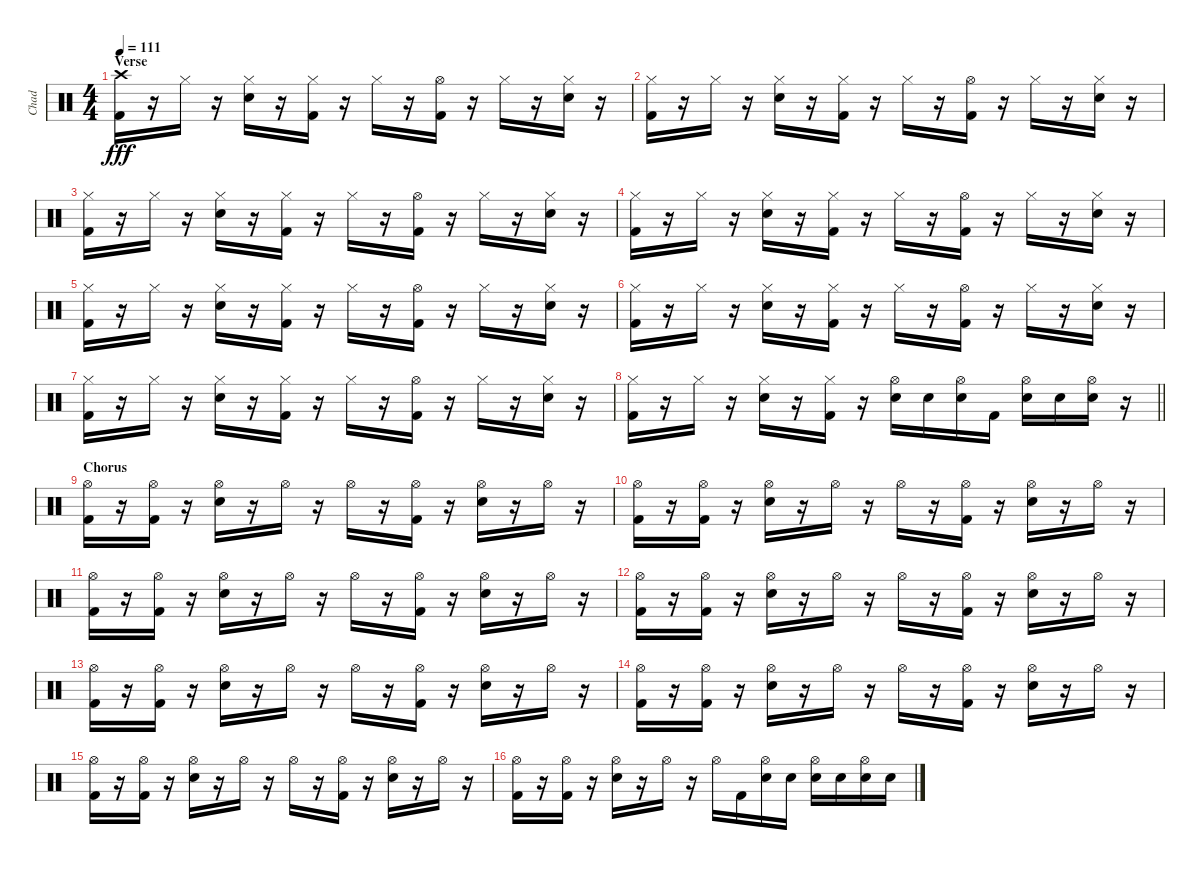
\track ("Chad" "Chad") {instrument percussion}
\staff {score}
\articulation defaults
\ts (4 4)
\section ("" "Verse")
\tempo 111
\clef neutral
\ks c
("Crash high (hit)" "Kick (hit) 2").16{dy fff} r.16 "Hi-Hat (closed)".16 r.16 ("Hi-Hat (closed)" "Electric Snare (hit)").16 r.16 ("Hi-Hat (closed)" "Kick (hit) 2").16 r.16 "Hi-Hat (closed)".16 r.16 ("Hi-Hat (open)" "Kick (hit) 2").16 r.16 "Hi-Hat (closed)".16 r.16 ("Hi-Hat (closed)" "Electric Snare (hit)").16 r.16 |
("Hi-Hat (closed)" "Kick (hit) 2").16 r.16 "Hi-Hat (closed)".16 r.16 ("Hi-Hat (closed)" "Electric Snare (hit)").16 r.16 ("Hi-Hat (closed)" "Kick (hit) 2").16 r.16 "Hi-Hat (closed)".16 r.16 ("Hi-Hat (open)" "Kick (hit) 2").16 r.16 "Hi-Hat (closed)".16 r.16 ("Hi-Hat (closed)" "Electric Snare (hit)").16 r.16 |
("Hi-Hat (closed)" "Kick (hit) 2").16 r.16 "Hi-Hat (closed)".16 r.16 ("Hi-Hat (closed)" "Electric Snare (hit)").16 r.16 ("Hi-Hat (closed)" "Kick (hit) 2").16 r.16 "Hi-Hat (closed)".16 r.16 ("Hi-Hat (open)" "Kick (hit) 2").16 r.16 "Hi-Hat (closed)".16 r.16 ("Hi-Hat (closed)" "Electric Snare (hit)").16 r.16 |
("Hi-Hat (closed)" "Kick (hit) 2").16 r.16 "Hi-Hat (closed)".16 r.16 ("Hi-Hat (closed)" "Electric Snare (hit)").16 r.16 ("Hi-Hat (closed)" "Kick (hit) 2").16 r.16 "Hi-Hat (closed)".16 r.16 ("Hi-Hat (open)" "Kick (hit) 2").16 r.16 "Hi-Hat (closed)".16 r.16 ("Hi-Hat (closed)" "Electric Snare (hit)").16 r.16 |
("Hi-Hat (closed)" "Kick (hit) 2").16 r.16 "Hi-Hat (closed)".16 r.16 ("Hi-Hat (closed)" "Electric Snare (hit)").16 r.16 ("Hi-Hat (closed)" "Kick (hit) 2").16 r.16 "Hi-Hat (closed)".16 r.16 ("Hi-Hat (open)" "Kick (hit) 2").16 r.16 "Hi-Hat (closed)".16 r.16 ("Hi-Hat (closed)" "Electric Snare (hit)").16 r.16 |
("Hi-Hat (closed)" "Kick (hit) 2").16 r.16 "Hi-Hat (closed)".16 r.16 ("Hi-Hat (closed)" "Electric Snare (hit)").16 r.16 ("Hi-Hat (closed)" "Kick (hit) 2").16 r.16 "Hi-Hat (closed)".16 r.16 ("Hi-Hat (open)" "Kick (hit) 2").16 r.16 "Hi-Hat (closed)".16 r.16 ("Hi-Hat (closed)" "Electric Snare (hit)").16 r.16 |
("Hi-Hat (closed)" "Kick (hit) 2").16 r.16 "Hi-Hat (closed)".16 r.16 ("Hi-Hat (closed)" "Electric Snare (hit)").16 r.16 ("Hi-Hat (closed)" "Kick (hit) 2").16 r.16 "Hi-Hat (closed)".16 r.16 ("Hi-Hat (open)" "Kick (hit) 2").16 r.16 "Hi-Hat (closed)".16 r.16 ("Hi-Hat (closed)" "Electric Snare (hit)").16 r.16 |
\barLineRight lightlight
("Hi-Hat (closed)" "Kick (hit) 2").16 r.16 "Hi-Hat (closed)".16 r.16 ("Hi-Hat (closed)" "Electric Snare (hit)").16 r.16 ("Hi-Hat (closed)" "Kick (hit) 2").16 r.16 ("Hi-Hat (open)" "Electric Snare (hit)").16 "Electric Snare (hit)".16 ("Hi-Hat (open)" "Electric Snare (hit)").16 "Kick (hit) 2".16 ("Hi-Hat (open)" "Electric Snare (hit)").16 "Electric Snare (hit)".16 ("Hi-Hat (open)" "Electric Snare (hit)").16 r.16 |
\section ("" "Chorus")
("Hi-Hat (open)" "Kick (hit) 2").16 r.16 ("Hi-Hat (open)" "Kick (hit) 2").16 r.16 ("Hi-Hat (open)" "Electric Snare (hit)").16 r.16 "Hi-Hat (open)".16 r.16 "Hi-Hat (open)".16 r.16 ("Hi-Hat (open)" "Kick (hit) 2").16 r.16 ("Hi-Hat (open)" "Electric Snare (hit)").16 r.16 "Hi-Hat (open)".16 r.16 |
("Hi-Hat (open)" "Kick (hit) 2").16 r.16 ("Hi-Hat (open)" "Kick (hit) 2").16 r.16 ("Hi-Hat (open)" "Electric Snare (hit)").16 r.16 "Hi-Hat (open)".16 r.16 "Hi-Hat (open)".16 r.16 ("Hi-Hat (open)" "Kick (hit) 2").16 r.16 ("Hi-Hat (open)" "Electric Snare (hit)").16 r.16 "Hi-Hat (open)".16 r.16 |
("Hi-Hat (open)" "Kick (hit) 2").16 r.16 ("Hi-Hat (open)" "Kick (hit) 2").16 r.16 ("Hi-Hat (open)" "Electric Snare (hit)").16 r.16 "Hi-Hat (open)".16 r.16 "Hi-Hat (open)".16 r.16 ("Hi-Hat (open)" "Kick (hit) 2").16 r.16 ("Hi-Hat (open)" "Electric Snare (hit)").16 r.16 "Hi-Hat (open)".16 r.16 |
("Hi-Hat (open)" "Kick (hit) 2").16 r.16 ("Hi-Hat (open)" "Kick (hit) 2").16 r.16 ("Hi-Hat (open)" "Electric Snare (hit)").16 r.16 "Hi-Hat (open)".16 r.16 "Hi-Hat (open)".16 r.16 ("Hi-Hat (open)" "Kick (hit) 2").16 r.16 ("Hi-Hat (open)" "Electric Snare (hit)").16 r.16 "Hi-Hat (open)".16 r.16 |
("Hi-Hat (open)" "Kick (hit) 2").16 r.16 ("Hi-Hat (open)" "Kick (hit) 2").16 r.16 ("Hi-Hat (open)" "Electric Snare (hit)").16 r.16 "Hi-Hat (open)".16 r.16 "Hi-Hat (open)".16 r.16 ("Hi-Hat (open)" "Kick (hit) 2").16 r.16 ("Hi-Hat (open)" "Electric Snare (hit)").16 r.16 "Hi-Hat (open)".16 r.16 |
("Hi-Hat (open)" "Kick (hit) 2").16 r.16 ("Hi-Hat (open)" "Kick (hit) 2").16 r.16 ("Hi-Hat (open)" "Electric Snare (hit)").16 r.16 "Hi-Hat (open)".16 r.16 "Hi-Hat (open)".16 r.16 ("Hi-Hat (open)" "Kick (hit) 2").16 r.16 ("Hi-Hat (open)" "Electric Snare (hit)").16 r.16 "Hi-Hat (open)".16 r.16 |
("Hi-Hat (open)" "Kick (hit) 2").16 r.16 ("Hi-Hat (open)" "Kick (hit) 2").16 r.16 ("Hi-Hat (open)" "Electric Snare (hit)").16 r.16 "Hi-Hat (open)".16 r.16 "Hi-Hat (open)".16 r.16 ("Hi-Hat (open)" "Kick (hit) 2").16 r.16 ("Hi-Hat (open)" "Electric Snare (hit)").16 r.16 "Hi-Hat (open)".16 r.16 |
("Hi-Hat (open)" "Kick (hit) 2").16 r.16 ("Hi-Hat (open)" "Kick (hit) 2").16 r.16 ("Hi-Hat (open)" "Electric Snare (hit)").16 r.16 "Hi-Hat (open)".16 r.16 "Hi-Hat (open)".16 "Kick (hit) 2".16 ("Hi-Hat (open)" "Electric Snare (hit)").16 "Electric Snare (hit)".16 ("Hi-Hat (open)" "Electric Snare (hit)").16 "Electric Snare (hit)".16 ("Hi-Hat (open)" "Electric Snare (hit)").16 "Electric Snare (hit)".16
